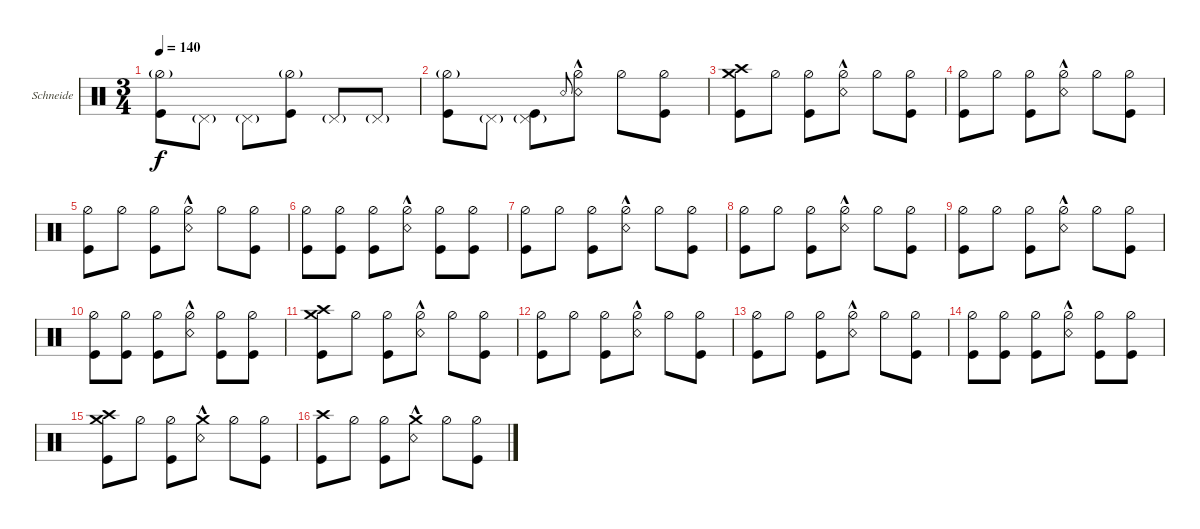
\bracketExtendMode groupsimilarinstruments
\firstSystemTrackNameOrientation horizontal
\otherSystemsTrackNameOrientation horizontal
\track ("Christoph \"Doom\" Schneider" "Schneide") {instrument percussion}
\staff {score}
\articulation defaults
\ts (3 4)
\tempo 140
\clef neutral
\ks c
("Hi-Hat (half)"{g} "Kick (hit)").8{dy f} "Pedal Hi-Hat (hit)"{g}.8 "Pedal Hi-Hat (hit)"{g}.8 ("Hi-Hat (half)"{g} "Kick (hit)").8 "Pedal Hi-Hat (hit)"{g}.8 "Pedal Hi-Hat (hit)"{g}.8 |
("Hi-Hat (half)"{g} "Kick (hit)").8 "Pedal Hi-Hat (hit)"{g}.8 ("Pedal Hi-Hat (hit)"{g} "Kick (hit)").8 "Snare (rim shot)".8{gr onbeat} ("Hi-Hat (half)" "Snare (rim shot)"{hac}).8 "Hi-Hat (half)".8 ("Hi-Hat (half)" "Kick (hit)").8 |
("Crash medium (hit)" "Kick (hit)" "Crash high (hit)").8 "Hi-Hat (half)".8 ("Hi-Hat (half)" "Kick (hit)").8 ("Hi-Hat (half)" "Snare (rim shot)"{hac}).8 "Hi-Hat (half)".8 ("Hi-Hat (half)" "Kick (hit)").8 |
("Hi-Hat (half)" "Kick (hit)").8 "Hi-Hat (half)".8 ("Hi-Hat (half)" "Kick (hit)").8 ("Hi-Hat (half)" "Snare (rim shot)"{hac}).8 "Hi-Hat (half)".8 ("Hi-Hat (half)" "Kick (hit)").8 |
("Hi-Hat (half)" "Kick (hit)").8 "Hi-Hat (half)".8 ("Hi-Hat (half)" "Kick (hit)").8 ("Hi-Hat (half)" "Snare (rim shot)"{hac}).8 "Hi-Hat (half)".8 ("Hi-Hat (half)" "Kick (hit)").8 |
("Hi-Hat (half)" "Kick (hit)").8 ("Hi-Hat (half)" "Kick (hit)").8 ("Hi-Hat (half)" "Kick (hit)").8 ("Hi-Hat (half)" "Snare (rim shot)"{hac}).8 ("Hi-Hat (half)" "Kick (hit)").8 ("Hi-Hat (half)" "Kick (hit)").8 |
("Kick (hit)" "Hi-Hat (half)").8 "Hi-Hat (half)".8 ("Hi-Hat (half)" "Kick (hit)").8 ("Hi-Hat (half)" "Snare (rim shot)"{hac}).8 "Hi-Hat (half)".8 ("Hi-Hat (half)" "Kick (hit)").8 |
("Hi-Hat (half)" "Kick (hit)").8 "Hi-Hat (half)".8 ("Hi-Hat (half)" "Kick (hit)").8 ("Hi-Hat (half)" "Snare (rim shot)"{hac}).8 "Hi-Hat (half)".8 ("Hi-Hat (half)" "Kick (hit)").8 |
("Hi-Hat (half)" "Kick (hit)").8 "Hi-Hat (half)".8 ("Hi-Hat (half)" "Kick (hit)").8 ("Hi-Hat (half)" "Snare (rim shot)"{hac}).8 "Hi-Hat (half)".8 ("Hi-Hat (half)" "Kick (hit)").8 |
("Hi-Hat (half)" "Kick (hit)").8 ("Hi-Hat (half)" "Kick (hit)").8 ("Hi-Hat (half)" "Kick (hit)").8 ("Hi-Hat (half)" "Snare (rim shot)"{hac}).8 ("Hi-Hat (half)" "Kick (hit)").8 ("Hi-Hat (half)" "Kick (hit)").8 |
("Crash medium (hit)" "Kick (hit)" "Crash high (hit)").8 "Hi-Hat (half)".8 ("Hi-Hat (half)" "Kick (hit)").8 ("Hi-Hat (half)" "Snare (rim shot)"{hac}).8 "Hi-Hat (half)".8 ("Hi-Hat (half)" "Kick (hit)").8 |
("Hi-Hat (half)" "Kick (hit)").8 "Hi-Hat (half)".8 ("Hi-Hat (half)" "Kick (hit)").8 ("Hi-Hat (half)" "Snare (rim shot)"{hac}).8 "Hi-Hat (half)".8 ("Hi-Hat (half)" "Kick (hit)").8 |
("Hi-Hat (half)" "Kick (hit)").8 "Hi-Hat (half)".8 ("Hi-Hat (half)" "Kick (hit)").8 ("Hi-Hat (half)" "Snare (rim shot)"{hac}).8 "Hi-Hat (half)".8 ("Hi-Hat (half)" "Kick (hit)").8 |
("Hi-Hat (half)" "Kick (hit)").8 ("Hi-Hat (half)" "Kick (hit)").8 ("Hi-Hat (half)" "Kick (hit)").8 ("Hi-Hat (half)" "Snare (rim shot)"{hac}).8 ("Hi-Hat (half)" "Kick (hit)").8 ("Hi-Hat (half)" "Kick (hit)").8 |
("Crash medium (hit)" "Kick (hit)" "Crash high (hit)").8 "Hi-Hat (half)".8 ("Hi-Hat (half)" "Kick (hit)").8 ("Crash medium (hit)" "Snare (rim shot)"{hac}).8 "Hi-Hat (half)".8 ("Hi-Hat (half)" "Kick (hit)").8 |
("Crash high (hit)" "Kick (hit)").8 "Hi-Hat (half)".8 ("Hi-Hat (half)" "Kick (hit)").8 ("Crash medium (hit)" "Snare (rim shot)"{hac}).8 "Hi-Hat (half)".8 ("Hi-Hat (half)" "Kick (hit)").8
